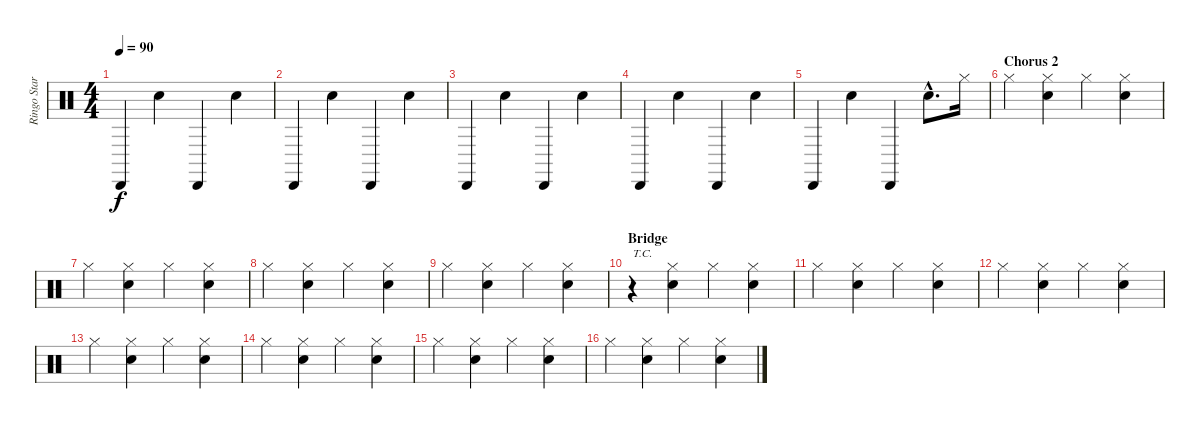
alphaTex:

\track ("Ringo Starr" "Ringo Star") {instrument percussion}
\staff {score}
\articulation defaults
\ts (4 4)
\tempo 90
\clef neutral
\ks c "Cabasa (hit)".4{dy f} "Snare (hit) 2".4 "Cabasa (hit)".4 "Snare (hit) 2".4
|
"Cabasa (hit)".4 "Snare (hit) 2".4 "Cabasa (hit)".4 "Snare (hit) 2".4 |
"Cabasa (hit)".4 "Snare (hit) 2".4 "Cabasa (hit)".4 "Snare (hit) 2".4 |
"Cabasa (hit)".4 "Snare (hit) 2".4 "Cabasa (hit)".4 "Snare (hit) 2".4 |
"Cabasa (hit)".4 "Snare (hit) 2".4 "Cabasa (hit)".4 "Snare (hit) 2"{hac}.8{d} "Hi-Hat (closed)".16 |
\section ("" "Chorus 2")
"Hi-Hat (closed)".4 ("Hi-Hat (closed)" "Snare (hit) 2").4 "Hi-Hat (closed)".4 ("Hi-Hat (closed)" "Snare (hit) 2").4 |
"Hi-Hat (closed)".4 ("Hi-Hat (closed)" "Snare (hit) 2").4 "Hi-Hat (closed)".4 ("Hi-Hat (closed)" "Snare (hit) 2").4 |
"Hi-Hat (closed)".4 ("Hi-Hat (closed)" "Snare (hit) 2").4 "Hi-Hat (closed)".4 ("Hi-Hat (closed)" "Snare (hit) 2").4 |
"Hi-Hat (closed)".4 ("Hi-Hat (closed)" "Snare (hit) 2").4 "Hi-Hat (closed)".4 ("Hi-Hat (closed)" "Snare (hit) 2").4 |
\section ("" "Bridge")
r.4{txt "T.C."} ("Hi-Hat (closed)" "Snare (hit) 2").4 "Hi-Hat (closed)".4 ("Hi-Hat (closed)" "Snare (hit) 2").4 |
"Hi-Hat (closed)".4 ("Hi-Hat (closed)" "Snare (hit) 2").4 "Hi-Hat (closed)".4 ("Hi-Hat (closed)" "Snare (hit) 2").4 |
"Hi-Hat (closed)".4 ("Hi-Hat (closed)" "Snare (hit) 2").4 "Hi-Hat (closed)".4 ("Hi-Hat (closed)" "Snare (hit) 2").4 |
"Hi-Hat (closed)".4 ("Hi-Hat (closed)" "Snare (hit) 2").4 "Hi-Hat (closed)".4 ("Hi-Hat (closed)" "Snare (hit) 2").4 |
"Hi-Hat (closed)".4 ("Hi-Hat (closed)" "Snare (hit) 2").4 "Hi-Hat (closed)".4 ("Hi-Hat (closed)" "Snare (hit) 2").4 |
"Hi-Hat (closed)".4 ("Hi-Hat (closed)" "Snare (hit) 2").4 "Hi-Hat (closed)".4 ("Hi-Hat (closed)" "Snare (hit) 2").4 |
"Hi-Hat (closed)".4 ("Hi-Hat (closed)" "Snare (hit) 2").4 "Hi-Hat (closed)".4 ("Hi-Hat (closed)" "Snare (hit) 2").4
